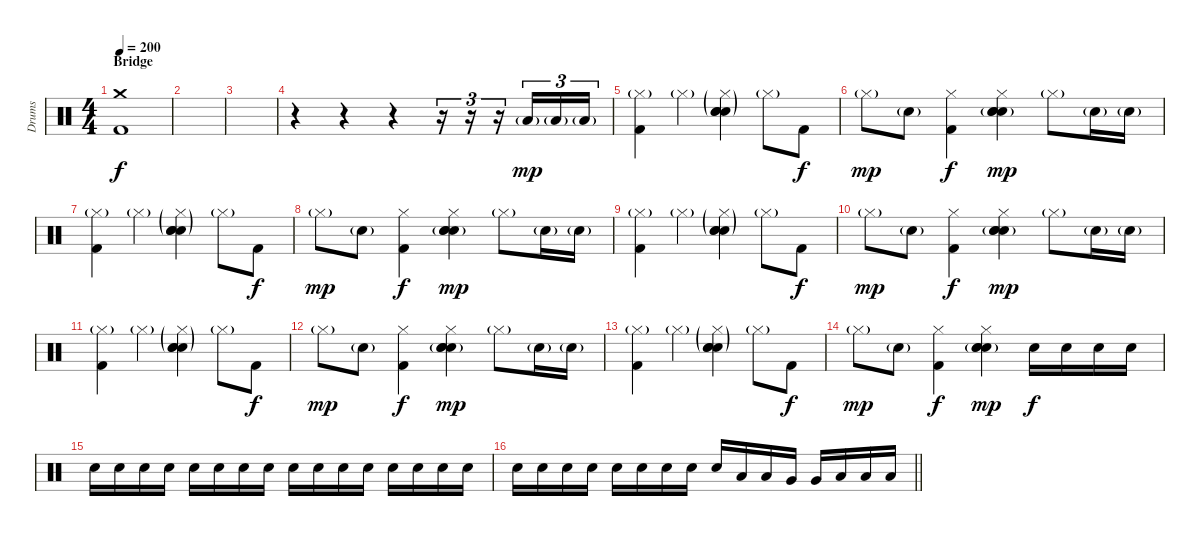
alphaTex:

\track ("Drums" "Drums") {instrument percussion}
\staff {score}
\articulation defaults
\ts (4 4)
\section ("" "Bridge")
\tempo 200
\clef neutral
\ks c
("Crash medium (hit)" "Kick (hit) 2").1{dy f} |
|
|
r.4 r.4 r.4 r.16{tu (3 2)} r.16{tu (3 2)} r.16{tu (3 2)} "Low Floor Tom (hit)"{g}.16{tu (3 2) dy mp} "Low Floor Tom (hit)"{g}.16{tu (3 2)} "Low Floor Tom (hit)"{g}.16{tu (3 2)} |
("Hi-Hat (closed)"{g} "Kick (hit) 2").4 "Hi-Hat (closed)"{g}.4 ("Hi-Hat (closed)"{g} "Snare (hit) 2"{g} "Hand Clap (hit)"{g} "Electric Snare (hit)").4 "Hi-Hat (closed)"{g}.8 "Kick (hit) 2".8{dy f} |
"Hi-Hat (closed)"{g}.8{dy mp} "Electric Snare (hit)"{g}.8 ("Hi-Hat (closed)" "Kick (hit) 2").4{dy f} ("Hi-Hat (closed)" "Snare (hit) 2"{g} "Hand Clap (hit)"{g} "Electric Snare (hit)").4{dy mp} "Hi-Hat (closed)"{g}.8 "Electric Snare (hit)"{g}.16 "Electric Snare (hit)"{g}.16 |
("Hi-Hat (closed)"{g} "Kick (hit) 2").4 "Hi-Hat (closed)"{g}.4 ("Hi-Hat (closed)"{g} "Snare (hit) 2"{g} "Hand Clap (hit)"{g} "Electric Snare (hit)").4 "Hi-Hat (closed)"{g}.8 "Kick (hit) 2".8{dy f} |
"Hi-Hat (closed)"{g}.8{dy mp} "Electric Snare (hit)"{g}.8 ("Hi-Hat (closed)" "Kick (hit) 2").4{dy f} ("Hi-Hat (closed)" "Snare (hit) 2"{g} "Hand Clap (hit)"{g} "Electric Snare (hit)").4{dy mp} "Hi-Hat (closed)"{g}.8 "Electric Snare (hit)"{g}.16 "Electric Snare (hit)"{g}.16 |
("Hi-Hat (closed)"{g} "Kick (hit) 2").4 "Hi-Hat (closed)"{g}.4 ("Hi-Hat (closed)"{g} "Snare (hit) 2"{g} "Hand Clap (hit)"{g} "Electric Snare (hit)").4 "Hi-Hat (closed)"{g}.8 "Kick (hit) 2".8{dy f} |
"Hi-Hat (closed)"{g}.8{dy mp} "Electric Snare (hit)"{g}.8 ("Hi-Hat (closed)" "Kick (hit) 2").4{dy f} ("Hi-Hat (closed)" "Snare (hit) 2"{g} "Hand Clap (hit)"{g} "Electric Snare (hit)").4{dy mp} "Hi-Hat (closed)"{g}.8 "Electric Snare (hit)"{g}.16 "Electric Snare (hit)"{g}.16 |
("Hi-Hat (closed)"{g} "Kick (hit) 2").4 "Hi-Hat (closed)"{g}.4 ("Hi-Hat (closed)"{g} "Snare (hit) 2"{g} "Hand Clap (hit)"{g} "Electric Snare (hit)").4 "Hi-Hat (closed)"{g}.8 "Kick (hit) 2".8{dy f} |
"Hi-Hat (closed)"{g}.8{dy mp} "Electric Snare (hit)"{g}.8 ("Hi-Hat (closed)" "Kick (hit) 2").4{dy f} ("Hi-Hat (closed)" "Snare (hit) 2"{g} "Hand Clap (hit)"{g} "Electric Snare (hit)").4{dy mp} "Hi-Hat (closed)"{g}.8 "Electric Snare (hit)"{g}.16 "Electric Snare (hit)"{g}.16 |
("Hi-Hat (closed)"{g} "Kick (hit) 2").4 "Hi-Hat (closed)"{g}.4 ("Hi-Hat (closed)"{g} "Snare (hit) 2"{g} "Hand Clap (hit)"{g} "Electric Snare (hit)").4 "Hi-Hat (closed)"{g}.8 "Kick (hit) 2".8{dy f} |
"Hi-Hat (closed)"{g}.8{dy mp} "Electric Snare (hit)"{g}.8 ("Hi-Hat (closed)" "Kick (hit) 2").4{dy f} ("Hi-Hat (closed)" "Snare (hit) 2"{g} "Hand Clap (hit)"{g} "Electric Snare (hit)").4{dy mp} "Electric Snare (hit)".16{dy f volume 6} "Electric Snare (hit)".16{volume 12} "Electric Snare (hit)".16 "Electric Snare (hit)".16 |
"Electric Snare (hit)".16 "Electric Snare (hit)".16 "Electric Snare (hit)".16 "Electric Snare (hit)".16 "Electric Snare (hit)".16 "Electric Snare (hit)".16 "Electric Snare (hit)".16 "Electric Snare (hit)".16 "Electric Snare (hit)".16 "Electric Snare (hit)".16 "Electric Snare (hit)".16 "Electric Snare (hit)".16 "Electric Snare (hit)".16 "Electric Snare (hit)".16 "Electric Snare (hit)".16 "Electric Snare (hit)".16 |
\barLineRight lightlight "Electric Snare (hit)".16 "Electric Snare (hit)".16 "Electric Snare (hit)".16 "Electric Snare (hit)".16 "Electric Snare (hit)".16 "Electric Snare (hit)".16 "Electric Snare (hit)".16 "Electric Snare (hit)".16 "Electric Snare (hit)".16 "Low Tom (hit)".16 "Low Tom (hit)".16 "Very Low Tom (hit)".16 "Very Low Tom (hit)".16 "Low Floor Tom (hit)".16 "Low Floor Tom (hit)".16 "Low Floor Tom (hit)".16
